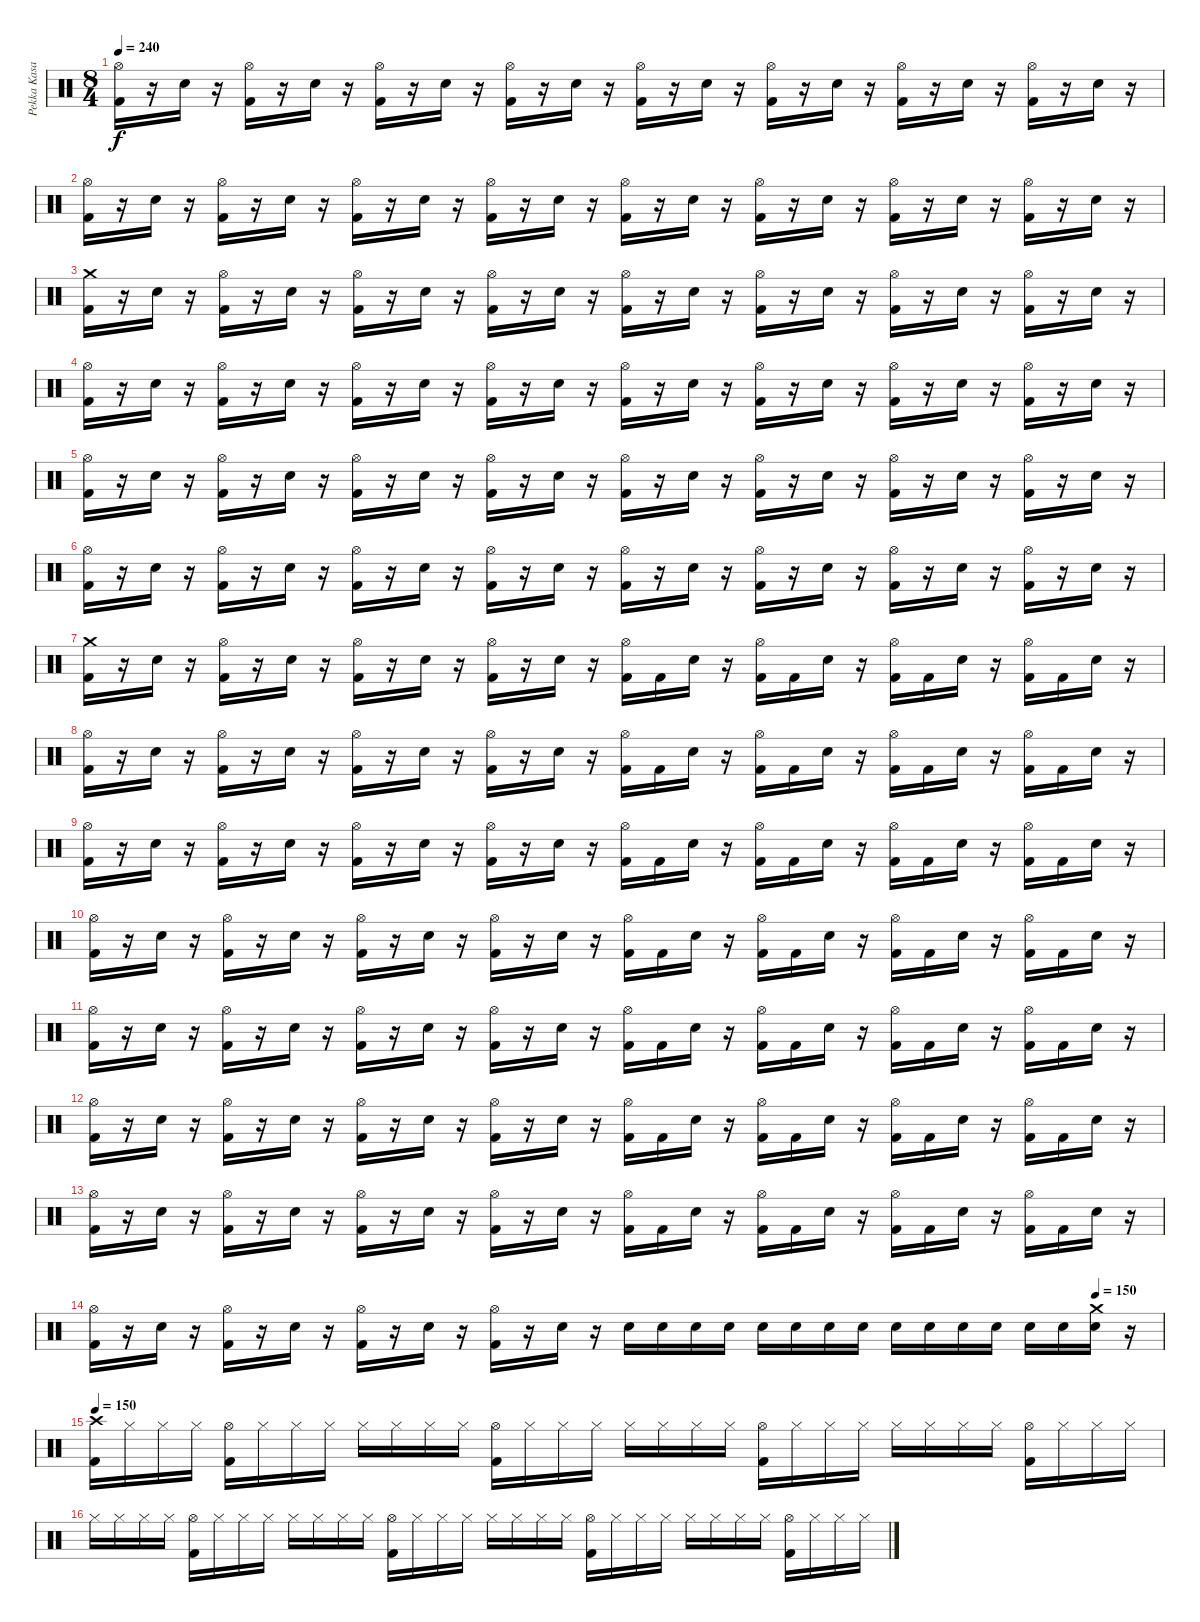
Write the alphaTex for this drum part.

\track ("Pekka Kasari" "Pekka Kasa") {instrument percussion}
\staff {score}
\articulation defaults
\ts (8 4)
\tempo 240
\clef neutral
\ks c
("Hi-Hat (open)" "Kick (hit) 2").16{dy f} r.16 "Electric Snare (hit)".16 r.16 ("Hi-Hat (open)" "Kick (hit) 2").16 r.16 "Electric Snare (hit)".16 r.16 ("Hi-Hat (open)" "Kick (hit) 2").16 r.16 "Electric Snare (hit)".16 r.16 ("Hi-Hat (open)" "Kick (hit) 2").16 r.16 "Electric Snare (hit)".16 r.16 ("Hi-Hat (open)" "Kick (hit) 2").16 r.16 "Electric Snare (hit)".16 r.16 ("Hi-Hat (open)" "Kick (hit) 2").16 r.16 "Electric Snare (hit)".16 r.16 ("Hi-Hat (open)" "Kick (hit) 2").16 r.16 "Electric Snare (hit)".16 r.16 ("Hi-Hat (open)" "Kick (hit) 2").16 r.16 "Electric Snare (hit)".16 r.16 |
("Hi-Hat (open)" "Kick (hit) 2").16 r.16 "Electric Snare (hit)".16 r.16 ("Hi-Hat (open)" "Kick (hit) 2").16 r.16 "Electric Snare (hit)".16 r.16 ("Hi-Hat (open)" "Kick (hit) 2").16 r.16 "Electric Snare (hit)".16 r.16 ("Hi-Hat (open)" "Kick (hit) 2").16 r.16 "Electric Snare (hit)".16 r.16 ("Hi-Hat (open)" "Kick (hit) 2").16 r.16 "Electric Snare (hit)".16 r.16 ("Hi-Hat (open)" "Kick (hit) 2").16 r.16 "Electric Snare (hit)".16 r.16 ("Hi-Hat (open)" "Kick (hit) 2").16 r.16 "Electric Snare (hit)".16 r.16 ("Hi-Hat (open)" "Kick (hit) 2").16 r.16 "Electric Snare (hit)".16 r.16 |
("Crash medium (hit)" "Kick (hit) 2").16 r.16 "Electric Snare (hit)".16 r.16 ("Hi-Hat (open)" "Kick (hit) 2").16 r.16 "Electric Snare (hit)".16 r.16 ("Hi-Hat (open)" "Kick (hit) 2").16 r.16 "Electric Snare (hit)".16 r.16 ("Hi-Hat (open)" "Kick (hit) 2").16 r.16 "Electric Snare (hit)".16 r.16 ("Hi-Hat (open)" "Kick (hit) 2").16 r.16 "Electric Snare (hit)".16 r.16 ("Hi-Hat (open)" "Kick (hit) 2").16 r.16 "Electric Snare (hit)".16 r.16 ("Hi-Hat (open)" "Kick (hit) 2").16 r.16 "Electric Snare (hit)".16 r.16 ("Hi-Hat (open)" "Kick (hit) 2").16 r.16 "Electric Snare (hit)".16 r.16 |
("Hi-Hat (open)" "Kick (hit) 2").16 r.16 "Electric Snare (hit)".16 r.16 ("Hi-Hat (open)" "Kick (hit) 2").16 r.16 "Electric Snare (hit)".16 r.16 ("Hi-Hat (open)" "Kick (hit) 2").16 r.16 "Electric Snare (hit)".16 r.16 ("Hi-Hat (open)" "Kick (hit) 2").16 r.16 "Electric Snare (hit)".16 r.16 ("Hi-Hat (open)" "Kick (hit) 2").16 r.16 "Electric Snare (hit)".16 r.16 ("Hi-Hat (open)" "Kick (hit) 2").16 r.16 "Electric Snare (hit)".16 r.16 ("Hi-Hat (open)" "Kick (hit) 2").16 r.16 "Electric Snare (hit)".16 r.16 ("Hi-Hat (open)" "Kick (hit) 2").16 r.16 "Electric Snare (hit)".16 r.16 |
("Hi-Hat (open)" "Kick (hit) 2").16 r.16 "Electric Snare (hit)".16 r.16 ("Hi-Hat (open)" "Kick (hit) 2").16 r.16 "Electric Snare (hit)".16 r.16 ("Hi-Hat (open)" "Kick (hit) 2").16 r.16 "Electric Snare (hit)".16 r.16 ("Hi-Hat (open)" "Kick (hit) 2").16 r.16 "Electric Snare (hit)".16 r.16 ("Hi-Hat (open)" "Kick (hit) 2").16 r.16 "Electric Snare (hit)".16 r.16 ("Hi-Hat (open)" "Kick (hit) 2").16 r.16 "Electric Snare (hit)".16 r.16 ("Hi-Hat (open)" "Kick (hit) 2").16 r.16 "Electric Snare (hit)".16 r.16 ("Hi-Hat (open)" "Kick (hit) 2").16 r.16 "Electric Snare (hit)".16 r.16 |
("Hi-Hat (open)" "Kick (hit) 2").16 r.16 "Electric Snare (hit)".16 r.16 ("Hi-Hat (open)" "Kick (hit) 2").16 r.16 "Electric Snare (hit)".16 r.16 ("Hi-Hat (open)" "Kick (hit) 2").16 r.16 "Electric Snare (hit)".16 r.16 ("Hi-Hat (open)" "Kick (hit) 2").16 r.16 "Electric Snare (hit)".16 r.16 ("Hi-Hat (open)" "Kick (hit) 2").16 r.16 "Electric Snare (hit)".16 r.16 ("Hi-Hat (open)" "Kick (hit) 2").16 r.16 "Electric Snare (hit)".16 r.16 ("Hi-Hat (open)" "Kick (hit) 2").16 r.16 "Electric Snare (hit)".16 r.16 ("Hi-Hat (open)" "Kick (hit) 2").16 r.16 "Electric Snare (hit)".16 r.16 |
("Crash medium (hit)" "Kick (hit) 2").16 r.16 "Electric Snare (hit)".16 r.16 ("Hi-Hat (open)" "Kick (hit) 2").16 r.16 "Electric Snare (hit)".16 r.16 ("Hi-Hat (open)" "Kick (hit) 2").16 r.16 "Electric Snare (hit)".16 r.16 ("Hi-Hat (open)" "Kick (hit) 2").16 r.16 "Electric Snare (hit)".16 r.16 ("Hi-Hat (open)" "Kick (hit) 2").16 "Kick (hit) 2".16 "Electric Snare (hit)".16 r.16 ("Hi-Hat (open)" "Kick (hit) 2").16 "Kick (hit) 2".16 "Electric Snare (hit)".16 r.16 ("Hi-Hat (open)" "Kick (hit) 2").16 "Kick (hit) 2".16 "Electric Snare (hit)".16 r.16 ("Hi-Hat (open)" "Kick (hit) 2").16 "Kick (hit) 2".16 "Electric Snare (hit)".16 r.16 |
("Hi-Hat (open)" "Kick (hit) 2").16 r.16 "Electric Snare (hit)".16 r.16 ("Hi-Hat (open)" "Kick (hit) 2").16 r.16 "Electric Snare (hit)".16 r.16 ("Hi-Hat (open)" "Kick (hit) 2").16 r.16 "Electric Snare (hit)".16 r.16 ("Hi-Hat (open)" "Kick (hit) 2").16 r.16 "Electric Snare (hit)".16 r.16 ("Hi-Hat (open)" "Kick (hit) 2").16 "Kick (hit) 2".16 "Electric Snare (hit)".16 r.16 ("Hi-Hat (open)" "Kick (hit) 2").16 "Kick (hit) 2".16 "Electric Snare (hit)".16 r.16 ("Hi-Hat (open)" "Kick (hit) 2").16 "Kick (hit) 2".16 "Electric Snare (hit)".16 r.16 ("Hi-Hat (open)" "Kick (hit) 2").16 "Kick (hit) 2".16 "Electric Snare (hit)".16 r.16 |
("Hi-Hat (open)" "Kick (hit) 2").16 r.16 "Electric Snare (hit)".16 r.16 ("Hi-Hat (open)" "Kick (hit) 2").16 r.16 "Electric Snare (hit)".16 r.16 ("Hi-Hat (open)" "Kick (hit) 2").16 r.16 "Electric Snare (hit)".16 r.16 ("Hi-Hat (open)" "Kick (hit) 2").16 r.16 "Electric Snare (hit)".16 r.16 ("Hi-Hat (open)" "Kick (hit) 2").16 "Kick (hit) 2".16 "Electric Snare (hit)".16 r.16 ("Hi-Hat (open)" "Kick (hit) 2").16 "Kick (hit) 2".16 "Electric Snare (hit)".16 r.16 ("Hi-Hat (open)" "Kick (hit) 2").16 "Kick (hit) 2".16 "Electric Snare (hit)".16 r.16 ("Hi-Hat (open)" "Kick (hit) 2").16 "Kick (hit) 2".16 "Electric Snare (hit)".16 r.16 |
("Hi-Hat (open)" "Kick (hit) 2").16 r.16 "Electric Snare (hit)".16 r.16 ("Hi-Hat (open)" "Kick (hit) 2").16 r.16 "Electric Snare (hit)".16 r.16 ("Hi-Hat (open)" "Kick (hit) 2").16 r.16 "Electric Snare (hit)".16 r.16 ("Hi-Hat (open)" "Kick (hit) 2").16 r.16 "Electric Snare (hit)".16 r.16 ("Hi-Hat (open)" "Kick (hit) 2").16 "Kick (hit) 2".16 "Electric Snare (hit)".16 r.16 ("Hi-Hat (open)" "Kick (hit) 2").16 "Kick (hit) 2".16 "Electric Snare (hit)".16 r.16 ("Hi-Hat (open)" "Kick (hit) 2").16 "Kick (hit) 2".16 "Electric Snare (hit)".16 r.16 ("Hi-Hat (open)" "Kick (hit) 2").16 "Kick (hit) 2".16 "Electric Snare (hit)".16 r.16 |
("Hi-Hat (open)" "Kick (hit) 2").16 r.16 "Electric Snare (hit)".16 r.16 ("Hi-Hat (open)" "Kick (hit) 2").16 r.16 "Electric Snare (hit)".16 r.16 ("Hi-Hat (open)" "Kick (hit) 2").16 r.16 "Electric Snare (hit)".16 r.16 ("Hi-Hat (open)" "Kick (hit) 2").16 r.16 "Electric Snare (hit)".16 r.16 ("Hi-Hat (open)" "Kick (hit) 2").16 "Kick (hit) 2".16 "Electric Snare (hit)".16 r.16 ("Hi-Hat (open)" "Kick (hit) 2").16 "Kick (hit) 2".16 "Electric Snare (hit)".16 r.16 ("Hi-Hat (open)" "Kick (hit) 2").16 "Kick (hit) 2".16 "Electric Snare (hit)".16 r.16 ("Hi-Hat (open)" "Kick (hit) 2").16 "Kick (hit) 2".16 "Electric Snare (hit)".16 r.16 |
("Hi-Hat (open)" "Kick (hit) 2").16 r.16 "Electric Snare (hit)".16 r.16 ("Hi-Hat (open)" "Kick (hit) 2").16 r.16 "Electric Snare (hit)".16 r.16 ("Hi-Hat (open)" "Kick (hit) 2").16 r.16 "Electric Snare (hit)".16 r.16 ("Hi-Hat (open)" "Kick (hit) 2").16 r.16 "Electric Snare (hit)".16 r.16 ("Hi-Hat (open)" "Kick (hit) 2").16 "Kick (hit) 2".16 "Electric Snare (hit)".16 r.16 ("Hi-Hat (open)" "Kick (hit) 2").16 "Kick (hit) 2".16 "Electric Snare (hit)".16 r.16 ("Hi-Hat (open)" "Kick (hit) 2").16 "Kick (hit) 2".16 "Electric Snare (hit)".16 r.16 ("Hi-Hat (open)" "Kick (hit) 2").16 "Kick (hit) 2".16 "Electric Snare (hit)".16 r.16 |
("Hi-Hat (open)" "Kick (hit) 2").16 r.16 "Electric Snare (hit)".16 r.16 ("Hi-Hat (open)" "Kick (hit) 2").16 r.16 "Electric Snare (hit)".16 r.16 ("Hi-Hat (open)" "Kick (hit) 2").16 r.16 "Electric Snare (hit)".16 r.16 ("Hi-Hat (open)" "Kick (hit) 2").16 r.16 "Electric Snare (hit)".16 r.16 ("Hi-Hat (open)" "Kick (hit) 2").16 "Kick (hit) 2".16 "Electric Snare (hit)".16 r.16 ("Hi-Hat (open)" "Kick (hit) 2").16 "Kick (hit) 2".16 "Electric Snare (hit)".16 r.16 ("Hi-Hat (open)" "Kick (hit) 2").16 "Kick (hit) 2".16 "Electric Snare (hit)".16 r.16 ("Hi-Hat (open)" "Kick (hit) 2").16 "Kick (hit) 2".16 "Electric Snare (hit)".16 r.16 |
\tempo (150 0.9375)
("Hi-Hat (open)" "Kick (hit) 2").16 r.16 "Electric Snare (hit)".16 r.16 ("Hi-Hat (open)" "Kick (hit) 2").16 r.16 "Electric Snare (hit)".16 r.16 ("Hi-Hat (open)" "Kick (hit) 2").16 r.16 "Electric Snare (hit)".16 r.16 ("Hi-Hat (open)" "Kick (hit) 2").16 r.16 "Electric Snare (hit)".16 r.16 "Electric Snare (hit)".16 "Electric Snare (hit)".16 "Electric Snare (hit)".16 "Electric Snare (hit)".16 "Electric Snare (hit)".16 "Electric Snare (hit)".16 "Electric Snare (hit)".16 "Electric Snare (hit)".16 "Electric Snare (hit)".16 "Electric Snare (hit)".16 "Electric Snare (hit)".16 "Electric Snare (hit)".16 "Electric Snare (hit)".16 "Electric Snare (hit)".16 ("Crash medium (hit)" "Electric Snare (hit)").16 r.16 |
\tempo 150
("Crash high (hit)" "Kick (hit) 2").16 "Hi-Hat (closed)".16 "Hi-Hat (closed)".16 "Hi-Hat (closed)".16 ("Hi-Hat (open)" "Kick (hit) 2").16 "Hi-Hat (closed)".16 "Hi-Hat (closed)".16 "Hi-Hat (closed)".16 "Hi-Hat (closed)".16 "Hi-Hat (closed)".16 "Hi-Hat (closed)".16 "Hi-Hat (closed)".16 ("Hi-Hat (open)" "Kick (hit) 2").16 "Hi-Hat (closed)".16 "Hi-Hat (closed)".16 "Hi-Hat (closed)".16 "Hi-Hat (closed)".16 "Hi-Hat (closed)".16 "Hi-Hat (closed)".16 "Hi-Hat (closed)".16 ("Hi-Hat (open)" "Kick (hit) 2").16 "Hi-Hat (closed)".16 "Hi-Hat (closed)".16 "Hi-Hat (closed)".16 "Hi-Hat (closed)".16 "Hi-Hat (closed)".16 "Hi-Hat (closed)".16 "Hi-Hat (closed)".16 ("Hi-Hat (open)" "Kick (hit) 2").16 "Hi-Hat (closed)".16 "Hi-Hat (closed)".16 "Hi-Hat (closed)".16 |
"Hi-Hat (closed)".16 "Hi-Hat (closed)".16 "Hi-Hat (closed)".16 "Hi-Hat (closed)".16 ("Hi-Hat (open)" "Kick (hit) 2").16 "Hi-Hat (closed)".16 "Hi-Hat (closed)".16 "Hi-Hat (closed)".16 "Hi-Hat (closed)".16 "Hi-Hat (closed)".16 "Hi-Hat (closed)".16 "Hi-Hat (closed)".16 ("Hi-Hat (open)" "Kick (hit) 2").16 "Hi-Hat (closed)".16 "Hi-Hat (closed)".16 "Hi-Hat (closed)".16 "Hi-Hat (closed)".16 "Hi-Hat (closed)".16 "Hi-Hat (closed)".16 "Hi-Hat (closed)".16 ("Hi-Hat (open)" "Kick (hit) 2").16 "Hi-Hat (closed)".16 "Hi-Hat (closed)".16 "Hi-Hat (closed)".16 "Hi-Hat (closed)".16 "Hi-Hat (closed)".16 "Hi-Hat (closed)".16 "Hi-Hat (closed)".16 ("Hi-Hat (open)" "Kick (hit) 2").16 "Hi-Hat (closed)".16 "Hi-Hat (closed)".16 "Hi-Hat (closed)".16
